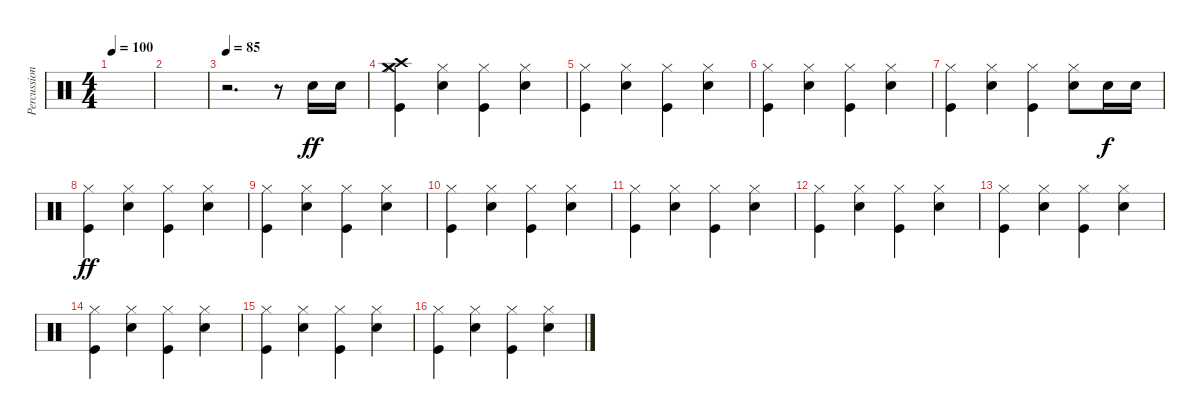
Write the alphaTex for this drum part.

\track ("Percussion" "Percussion") {instrument percussion}
\staff {score}
\articulation defaults
\ts (4 4)
\tempo 100
\clef neutral
\ks c
|
|
\tempo 85
r.2{d} r.8 "Snare (hit) 2".16{dy ff} "Snare (hit) 2".16 |
("Crash medium (hit)" "Crash high (hit)" "Hi-Hat (closed)" "Kick (hit)").4 ("Hi-Hat (closed)" "Snare (hit) 2").4 ("Hi-Hat (closed)" "Kick (hit)").4 ("Hi-Hat (closed)" "Snare (hit) 2").4 |
("Hi-Hat (closed)" "Kick (hit)").4 ("Hi-Hat (closed)" "Snare (hit) 2").4 ("Hi-Hat (closed)" "Kick (hit)").4 ("Hi-Hat (closed)" "Snare (hit) 2").4 |
("Hi-Hat (closed)" "Kick (hit)").4 ("Hi-Hat (closed)" "Snare (hit) 2").4 ("Hi-Hat (closed)" "Kick (hit)").4 ("Hi-Hat (closed)" "Snare (hit) 2").4 |
("Hi-Hat (closed)" "Kick (hit)").4 ("Hi-Hat (closed)" "Snare (hit) 2").4 ("Hi-Hat (closed)" "Kick (hit)").4 ("Hi-Hat (closed)" "Snare (hit) 2").8 "Snare (hit) 2".16{dy f} "Snare (hit) 2".16 |
("Hi-Hat (closed)" "Kick (hit)").4{dy ff} ("Hi-Hat (closed)" "Snare (hit) 2").4 ("Hi-Hat (closed)" "Kick (hit)").4 ("Hi-Hat (closed)" "Snare (hit) 2").4 |
("Hi-Hat (closed)" "Kick (hit)").4 ("Hi-Hat (closed)" "Snare (hit) 2").4 ("Hi-Hat (closed)" "Kick (hit)").4 ("Hi-Hat (closed)" "Snare (hit) 2").4 |
("Hi-Hat (closed)" "Kick (hit)").4 ("Hi-Hat (closed)" "Snare (hit) 2").4 ("Hi-Hat (closed)" "Kick (hit)").4 ("Hi-Hat (closed)" "Snare (hit) 2").4 |
("Hi-Hat (closed)" "Kick (hit)").4 ("Hi-Hat (closed)" "Snare (hit) 2").4 ("Hi-Hat (closed)" "Kick (hit)").4 ("Hi-Hat (closed)" "Snare (hit) 2").4 |
("Hi-Hat (closed)" "Kick (hit)").4 ("Hi-Hat (closed)" "Snare (hit) 2").4 ("Hi-Hat (closed)" "Kick (hit)").4 ("Hi-Hat (closed)" "Snare (hit) 2").4 |
("Hi-Hat (closed)" "Kick (hit)").4 ("Hi-Hat (closed)" "Snare (hit) 2").4 ("Hi-Hat (closed)" "Kick (hit)").4 ("Hi-Hat (closed)" "Snare (hit) 2").4 |
("Hi-Hat (closed)" "Kick (hit)").4 ("Hi-Hat (closed)" "Snare (hit) 2").4 ("Hi-Hat (closed)" "Kick (hit)").4 ("Hi-Hat (closed)" "Snare (hit) 2").4 |
("Hi-Hat (closed)" "Kick (hit)").4 ("Hi-Hat (closed)" "Snare (hit) 2").4 ("Hi-Hat (closed)" "Kick (hit)").4 ("Hi-Hat (closed)" "Snare (hit) 2").4 |
("Hi-Hat (closed)" "Kick (hit)").4 ("Hi-Hat (closed)" "Snare (hit) 2").4 ("Hi-Hat (closed)" "Kick (hit)").4 ("Hi-Hat (closed)" "Snare (hit) 2").4
